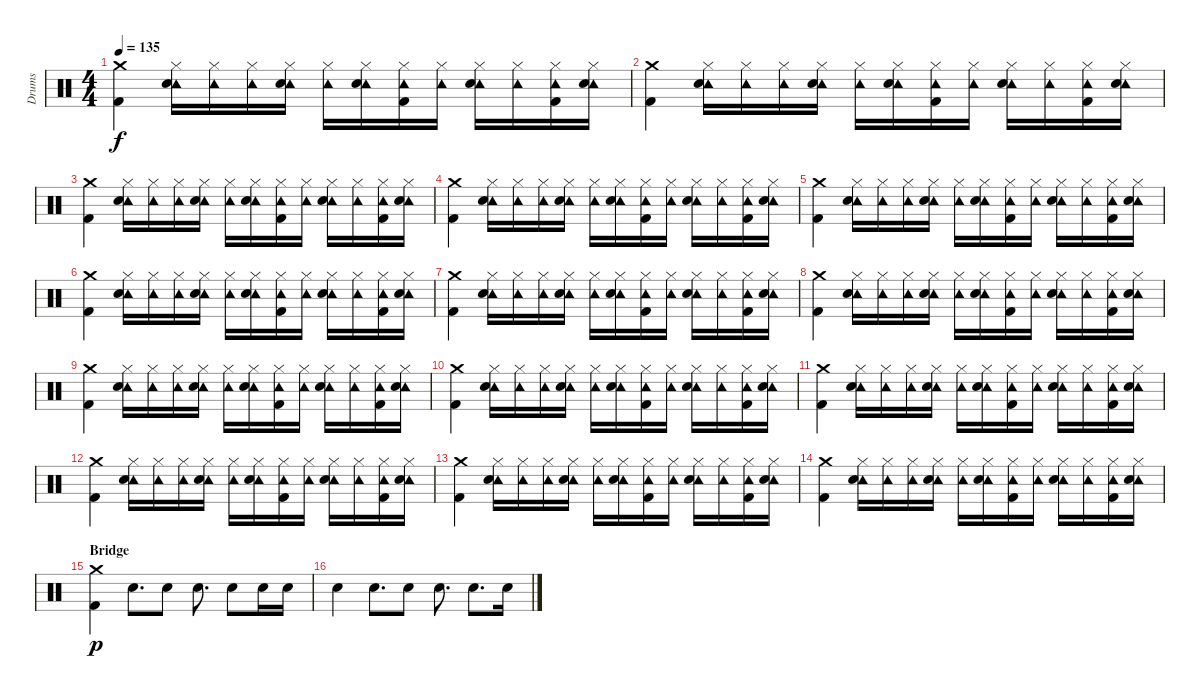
\track ("Drums" "Drums") {instrument percussion}
\staff {score}
\articulation defaults
\ts (4 4)
\tempo 135
\clef neutral
\ks c
("Crash medium (hit)" "Kick (hit) 2").4{dy f} ("Hi-Hat (closed)" "Tambourine (hit)" "Snare (hit) 2").16 ("Hi-Hat (closed)" "Tambourine (hit)").16 ("Hi-Hat (closed)" "Tambourine (hit)").16 ("Hi-Hat (closed)" "Tambourine (hit)" "Snare (hit) 2").16 ("Hi-Hat (closed)" "Tambourine (hit)").16 ("Hi-Hat (closed)" "Tambourine (hit)" "Snare (hit) 2").16 ("Hi-Hat (closed)" "Tambourine (hit)" "Kick (hit) 2").16 ("Hi-Hat (closed)" "Tambourine (hit)").16 ("Hi-Hat (closed)" "Tambourine (hit)" "Snare (hit) 2").16 ("Hi-Hat (closed)" "Tambourine (hit)").16 ("Hi-Hat (closed)" "Tambourine (hit)" "Kick (hit) 2").16 ("Hi-Hat (closed)" "Tambourine (hit)" "Snare (hit) 2").16 |
("Crash medium (hit)" "Kick (hit) 2").4 ("Hi-Hat (closed)" "Tambourine (hit)" "Snare (hit) 2").16 ("Hi-Hat (closed)" "Tambourine (hit)").16 ("Hi-Hat (closed)" "Tambourine (hit)").16 ("Hi-Hat (closed)" "Tambourine (hit)" "Snare (hit) 2").16 ("Hi-Hat (closed)" "Tambourine (hit)").16 ("Hi-Hat (closed)" "Tambourine (hit)" "Snare (hit) 2").16 ("Hi-Hat (closed)" "Tambourine (hit)" "Kick (hit) 2").16 ("Hi-Hat (closed)" "Tambourine (hit)").16 ("Hi-Hat (closed)" "Tambourine (hit)" "Snare (hit) 2").16 ("Hi-Hat (closed)" "Tambourine (hit)").16 ("Hi-Hat (closed)" "Tambourine (hit)" "Kick (hit) 2").16 ("Hi-Hat (closed)" "Tambourine (hit)" "Snare (hit) 2").16 |
("Crash medium (hit)" "Kick (hit) 2").4 ("Hi-Hat (closed)" "Tambourine (hit)" "Snare (hit) 2").16 ("Hi-Hat (closed)" "Tambourine (hit)").16 ("Hi-Hat (closed)" "Tambourine (hit)").16 ("Hi-Hat (closed)" "Tambourine (hit)" "Snare (hit) 2").16 ("Hi-Hat (closed)" "Tambourine (hit)").16 ("Hi-Hat (closed)" "Tambourine (hit)" "Snare (hit) 2").16 ("Hi-Hat (closed)" "Tambourine (hit)" "Kick (hit) 2").16 ("Hi-Hat (closed)" "Tambourine (hit)").16 ("Hi-Hat (closed)" "Tambourine (hit)" "Snare (hit) 2").16 ("Hi-Hat (closed)" "Tambourine (hit)").16 ("Hi-Hat (closed)" "Tambourine (hit)" "Kick (hit) 2").16 ("Hi-Hat (closed)" "Tambourine (hit)" "Snare (hit) 2").16 |
("Crash medium (hit)" "Kick (hit) 2").4 ("Hi-Hat (closed)" "Tambourine (hit)" "Snare (hit) 2").16 ("Hi-Hat (closed)" "Tambourine (hit)").16 ("Hi-Hat (closed)" "Tambourine (hit)").16 ("Hi-Hat (closed)" "Tambourine (hit)" "Snare (hit) 2").16 ("Hi-Hat (closed)" "Tambourine (hit)").16 ("Hi-Hat (closed)" "Tambourine (hit)" "Snare (hit) 2").16 ("Hi-Hat (closed)" "Tambourine (hit)" "Kick (hit) 2").16 ("Hi-Hat (closed)" "Tambourine (hit)").16 ("Hi-Hat (closed)" "Tambourine (hit)" "Snare (hit) 2").16 ("Hi-Hat (closed)" "Tambourine (hit)").16 ("Hi-Hat (closed)" "Tambourine (hit)" "Kick (hit) 2").16 ("Hi-Hat (closed)" "Tambourine (hit)" "Snare (hit) 2").16 |
("Crash medium (hit)" "Kick (hit) 2").4 ("Hi-Hat (closed)" "Tambourine (hit)" "Snare (hit) 2").16 ("Hi-Hat (closed)" "Tambourine (hit)").16 ("Hi-Hat (closed)" "Tambourine (hit)").16 ("Hi-Hat (closed)" "Tambourine (hit)" "Snare (hit) 2").16 ("Hi-Hat (closed)" "Tambourine (hit)").16 ("Hi-Hat (closed)" "Tambourine (hit)" "Snare (hit) 2").16 ("Hi-Hat (closed)" "Tambourine (hit)" "Kick (hit) 2").16 ("Hi-Hat (closed)" "Tambourine (hit)").16 ("Hi-Hat (closed)" "Tambourine (hit)" "Snare (hit) 2").16 ("Hi-Hat (closed)" "Tambourine (hit)").16 ("Hi-Hat (closed)" "Tambourine (hit)" "Kick (hit) 2").16 ("Hi-Hat (closed)" "Tambourine (hit)" "Snare (hit) 2").16 |
("Crash medium (hit)" "Kick (hit) 2").4 ("Hi-Hat (closed)" "Tambourine (hit)" "Snare (hit) 2").16 ("Hi-Hat (closed)" "Tambourine (hit)").16 ("Hi-Hat (closed)" "Tambourine (hit)").16 ("Hi-Hat (closed)" "Tambourine (hit)" "Snare (hit) 2").16 ("Hi-Hat (closed)" "Tambourine (hit)").16 ("Hi-Hat (closed)" "Tambourine (hit)" "Snare (hit) 2").16 ("Hi-Hat (closed)" "Tambourine (hit)" "Kick (hit) 2").16 ("Hi-Hat (closed)" "Tambourine (hit)").16 ("Hi-Hat (closed)" "Tambourine (hit)" "Snare (hit) 2").16 ("Hi-Hat (closed)" "Tambourine (hit)").16 ("Hi-Hat (closed)" "Tambourine (hit)" "Kick (hit) 2").16 ("Hi-Hat (closed)" "Tambourine (hit)" "Snare (hit) 2").16 |
("Crash medium (hit)" "Kick (hit) 2").4 ("Hi-Hat (closed)" "Tambourine (hit)" "Snare (hit) 2").16 ("Hi-Hat (closed)" "Tambourine (hit)").16 ("Hi-Hat (closed)" "Tambourine (hit)").16 ("Hi-Hat (closed)" "Tambourine (hit)" "Snare (hit) 2").16 ("Hi-Hat (closed)" "Tambourine (hit)").16 ("Hi-Hat (closed)" "Tambourine (hit)" "Snare (hit) 2").16 ("Hi-Hat (closed)" "Tambourine (hit)" "Kick (hit) 2").16 ("Hi-Hat (closed)" "Tambourine (hit)").16 ("Hi-Hat (closed)" "Tambourine (hit)" "Snare (hit) 2").16 ("Hi-Hat (closed)" "Tambourine (hit)").16 ("Hi-Hat (closed)" "Tambourine (hit)" "Kick (hit) 2").16 ("Hi-Hat (closed)" "Tambourine (hit)" "Snare (hit) 2").16 |
("Crash medium (hit)" "Kick (hit) 2").4 ("Hi-Hat (closed)" "Tambourine (hit)" "Snare (hit) 2").16 ("Hi-Hat (closed)" "Tambourine (hit)").16 ("Hi-Hat (closed)" "Tambourine (hit)").16 ("Hi-Hat (closed)" "Tambourine (hit)" "Snare (hit) 2").16 ("Hi-Hat (closed)" "Tambourine (hit)").16 ("Hi-Hat (closed)" "Tambourine (hit)" "Snare (hit) 2").16 ("Hi-Hat (closed)" "Tambourine (hit)" "Kick (hit) 2").16 ("Hi-Hat (closed)" "Tambourine (hit)").16 ("Hi-Hat (closed)" "Tambourine (hit)" "Snare (hit) 2").16 ("Hi-Hat (closed)" "Tambourine (hit)").16 ("Hi-Hat (closed)" "Tambourine (hit)" "Kick (hit) 2").16 ("Hi-Hat (closed)" "Tambourine (hit)" "Snare (hit) 2").16 |
("Crash medium (hit)" "Kick (hit) 2").4 ("Hi-Hat (closed)" "Tambourine (hit)" "Snare (hit) 2").16 ("Hi-Hat (closed)" "Tambourine (hit)").16 ("Hi-Hat (closed)" "Tambourine (hit)").16 ("Hi-Hat (closed)" "Tambourine (hit)" "Snare (hit) 2").16 ("Hi-Hat (closed)" "Tambourine (hit)").16 ("Hi-Hat (closed)" "Tambourine (hit)" "Snare (hit) 2").16 ("Hi-Hat (closed)" "Tambourine (hit)" "Kick (hit) 2").16 ("Hi-Hat (closed)" "Tambourine (hit)").16 ("Hi-Hat (closed)" "Tambourine (hit)" "Snare (hit) 2").16 ("Hi-Hat (closed)" "Tambourine (hit)").16 ("Hi-Hat (closed)" "Tambourine (hit)" "Kick (hit) 2").16 ("Hi-Hat (closed)" "Tambourine (hit)" "Snare (hit) 2").16 |
("Crash medium (hit)" "Kick (hit) 2").4 ("Hi-Hat (closed)" "Tambourine (hit)" "Snare (hit) 2").16 ("Hi-Hat (closed)" "Tambourine (hit)").16 ("Hi-Hat (closed)" "Tambourine (hit)").16 ("Hi-Hat (closed)" "Tambourine (hit)" "Snare (hit) 2").16 ("Hi-Hat (closed)" "Tambourine (hit)").16 ("Hi-Hat (closed)" "Tambourine (hit)" "Snare (hit) 2").16 ("Hi-Hat (closed)" "Tambourine (hit)" "Kick (hit) 2").16 ("Hi-Hat (closed)" "Tambourine (hit)").16 ("Hi-Hat (closed)" "Tambourine (hit)" "Snare (hit) 2").16 ("Hi-Hat (closed)" "Tambourine (hit)").16 ("Hi-Hat (closed)" "Tambourine (hit)" "Kick (hit) 2").16 ("Hi-Hat (closed)" "Tambourine (hit)" "Snare (hit) 2").16 |
("Crash medium (hit)" "Kick (hit) 2").4 ("Hi-Hat (closed)" "Tambourine (hit)" "Snare (hit) 2").16 ("Hi-Hat (closed)" "Tambourine (hit)").16 ("Hi-Hat (closed)" "Tambourine (hit)").16 ("Hi-Hat (closed)" "Tambourine (hit)" "Snare (hit) 2").16 ("Hi-Hat (closed)" "Tambourine (hit)").16 ("Hi-Hat (closed)" "Tambourine (hit)" "Snare (hit) 2").16 ("Hi-Hat (closed)" "Tambourine (hit)" "Kick (hit) 2").16 ("Hi-Hat (closed)" "Tambourine (hit)").16 ("Hi-Hat (closed)" "Tambourine (hit)" "Snare (hit) 2").16 ("Hi-Hat (closed)" "Tambourine (hit)").16 ("Hi-Hat (closed)" "Tambourine (hit)" "Kick (hit) 2").16 ("Hi-Hat (closed)" "Tambourine (hit)" "Snare (hit) 2").16 |
("Crash medium (hit)" "Kick (hit) 2").4 ("Hi-Hat (closed)" "Tambourine (hit)" "Snare (hit) 2").16 ("Hi-Hat (closed)" "Tambourine (hit)").16 ("Hi-Hat (closed)" "Tambourine (hit)").16 ("Hi-Hat (closed)" "Tambourine (hit)" "Snare (hit) 2").16 ("Hi-Hat (closed)" "Tambourine (hit)").16 ("Hi-Hat (closed)" "Tambourine (hit)" "Snare (hit) 2").16 ("Hi-Hat (closed)" "Tambourine (hit)" "Kick (hit) 2").16 ("Hi-Hat (closed)" "Tambourine (hit)").16 ("Hi-Hat (closed)" "Tambourine (hit)" "Snare (hit) 2").16 ("Hi-Hat (closed)" "Tambourine (hit)").16 ("Hi-Hat (closed)" "Tambourine (hit)" "Kick (hit) 2").16 ("Hi-Hat (closed)" "Tambourine (hit)" "Snare (hit) 2").16 |
("Crash medium (hit)" "Kick (hit) 2").4 ("Hi-Hat (closed)" "Tambourine (hit)" "Snare (hit) 2").16 ("Hi-Hat (closed)" "Tambourine (hit)").16 ("Hi-Hat (closed)" "Tambourine (hit)").16 ("Hi-Hat (closed)" "Tambourine (hit)" "Snare (hit) 2").16 ("Hi-Hat (closed)" "Tambourine (hit)").16 ("Hi-Hat (closed)" "Tambourine (hit)" "Snare (hit) 2").16 ("Hi-Hat (closed)" "Tambourine (hit)" "Kick (hit) 2").16 ("Hi-Hat (closed)" "Tambourine (hit)").16 ("Hi-Hat (closed)" "Tambourine (hit)" "Snare (hit) 2").16 ("Hi-Hat (closed)" "Tambourine (hit)").16 ("Hi-Hat (closed)" "Tambourine (hit)" "Kick (hit) 2").16 ("Hi-Hat (closed)" "Tambourine (hit)" "Snare (hit) 2").16 |
("Crash medium (hit)" "Kick (hit) 2").4 ("Hi-Hat (closed)" "Tambourine (hit)" "Snare (hit) 2").16 ("Hi-Hat (closed)" "Tambourine (hit)").16 ("Hi-Hat (closed)" "Tambourine (hit)").16 ("Hi-Hat (closed)" "Tambourine (hit)" "Snare (hit) 2").16 ("Hi-Hat (closed)" "Tambourine (hit)").16 ("Hi-Hat (closed)" "Tambourine (hit)" "Snare (hit) 2").16 ("Hi-Hat (closed)" "Tambourine (hit)" "Kick (hit) 2").16 ("Hi-Hat (closed)" "Tambourine (hit)").16 ("Hi-Hat (closed)" "Tambourine (hit)" "Snare (hit) 2").16 ("Hi-Hat (closed)" "Tambourine (hit)").16 ("Hi-Hat (closed)" "Tambourine (hit)" "Kick (hit) 2").16 ("Hi-Hat (closed)" "Tambourine (hit)" "Snare (hit) 2").16 |
\section ("" "Bridge")
("Crash medium (hit)" "Kick (hit) 2").4{dy p} "Snare (hit) 2".8{d} "Snare (hit) 2".8 "Snare (hit) 2".8{d} "Snare (hit) 2".8 "Snare (hit) 2".16 "Snare (hit) 2".16 |
"Snare (hit) 2".4 "Snare (hit) 2".8{d} "Snare (hit) 2".8 "Snare (hit) 2".8{d} "Snare (hit) 2".8{d} "Snare (hit) 2".16
